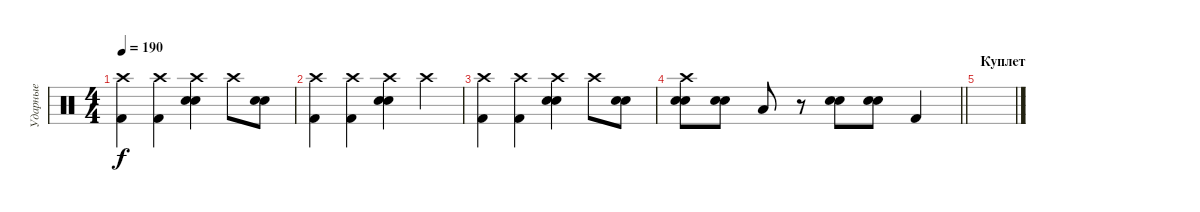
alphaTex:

\track ("Ударные" "Ударные") {instrument percussion}
\staff {score}
\articulation defaults
\ts (4 4)
\tempo 190
\clef neutral
\ks c
("Crash high (hit)" "Kick (hit) 2").4{dy f} ("Crash high (hit)" "Kick (hit) 2").4 ("Crash high (hit)" "Electric Snare (hit)" "Snare (hit) 2").4 "Crash high (hit)".8 ("Electric Snare (hit)" "Snare (hit) 2").8 |
("Crash high (hit)" "Kick (hit) 2").4 ("Crash high (hit)" "Kick (hit) 2").4 ("Crash high (hit)" "Electric Snare (hit)" "Snare (hit) 2").4 "Crash high (hit)".4 |
("Crash high (hit)" "Kick (hit) 2").4 ("Crash high (hit)" "Kick (hit) 2").4 ("Crash high (hit)" "Electric Snare (hit)" "Snare (hit) 2").4 "Crash high (hit)".8 ("Electric Snare (hit)" "Snare (hit) 2").8 |
\barLineRight lightlight
("Crash high (hit)" "Electric Snare (hit)" "Snare (hit) 2").8 ("Electric Snare (hit)" "Snare (hit) 2").8 "Low Tom (hit)".8 r.8 ("Electric Snare (hit)" "Snare (hit) 2").8 ("Electric Snare (hit)" "Snare (hit) 2").8 "Kick (hit) 2".4 |
\section ("" "Куплет")
